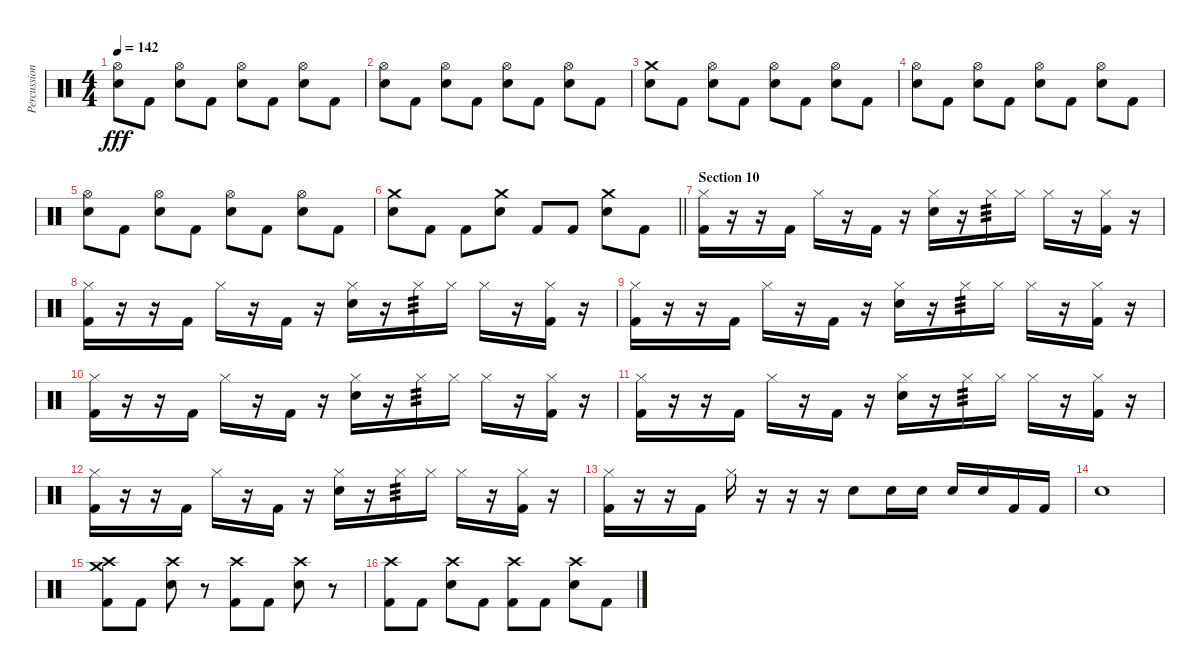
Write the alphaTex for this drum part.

\track ("Percussion" "Percussion") {instrument percussion}
\staff {score}
\articulation defaults
\ts (4 4)
\tempo 142
\clef neutral
\ks c
("Hi-Hat (open)" "Electric Snare (hit)").8{dy fff} "Kick (hit) 2".8 ("Hi-Hat (open)" "Electric Snare (hit)").8 "Kick (hit) 2".8 ("Hi-Hat (open)" "Electric Snare (hit)").8 "Kick (hit) 2".8 ("Hi-Hat (open)" "Electric Snare (hit)").8 "Kick (hit) 2".8 |
("Hi-Hat (open)" "Electric Snare (hit)").8 "Kick (hit) 2".8 ("Hi-Hat (open)" "Electric Snare (hit)").8 "Kick (hit) 2".8 ("Hi-Hat (open)" "Electric Snare (hit)").8 "Kick (hit) 2".8 ("Hi-Hat (open)" "Electric Snare (hit)").8 "Kick (hit) 2".8 |
("Crash medium (hit)" "Electric Snare (hit)").8 "Kick (hit) 2".8 ("Hi-Hat (open)" "Electric Snare (hit)").8 "Kick (hit) 2".8 ("Hi-Hat (open)" "Electric Snare (hit)").8 "Kick (hit) 2".8 ("Hi-Hat (open)" "Electric Snare (hit)").8 "Kick (hit) 2".8 |
("Hi-Hat (open)" "Electric Snare (hit)").8 "Kick (hit) 2".8 ("Hi-Hat (open)" "Electric Snare (hit)").8 "Kick (hit) 2".8 ("Hi-Hat (open)" "Electric Snare (hit)").8 "Kick (hit) 2".8 ("Hi-Hat (open)" "Electric Snare (hit)").8 "Kick (hit) 2".8 |
("Hi-Hat (open)" "Electric Snare (hit)").8 "Kick (hit) 2".8 ("Hi-Hat (open)" "Electric Snare (hit)").8 "Kick (hit) 2".8 ("Hi-Hat (open)" "Electric Snare (hit)").8 "Kick (hit) 2".8 ("Hi-Hat (open)" "Electric Snare (hit)").8 "Kick (hit) 2".8 |
\barLineRight lightlight
("Crash medium (hit)" "Electric Snare (hit)").8 "Kick (hit) 2".8 "Kick (hit) 2".8 ("Crash medium (hit)" "Electric Snare (hit)").8 "Kick (hit) 2".8 "Kick (hit) 2".8 ("Crash medium (hit)" "Electric Snare (hit)").8 "Kick (hit) 2".8 |
\section ("" "Section 10")
("Hi-Hat (closed)" "Kick (hit) 2").16 r.16 r.16 "Kick (hit) 2".16 "Hi-Hat (closed)".16 r.16 "Kick (hit) 2".16 r.16 ("Hi-Hat (closed)" "Electric Snare (hit)").16 r.16 "Hi-Hat (closed)".16{tp 3} "Hi-Hat (closed)".16 "Hi-Hat (closed)".16 r.16 ("Hi-Hat (closed)" "Kick (hit) 2").16 r.16 |
("Hi-Hat (closed)" "Kick (hit) 2").16 r.16 r.16 "Kick (hit) 2".16 "Hi-Hat (closed)".16 r.16 "Kick (hit) 2".16 r.16 ("Hi-Hat (closed)" "Electric Snare (hit)").16 r.16 "Hi-Hat (closed)".16{tp 3} "Hi-Hat (closed)".16 "Hi-Hat (closed)".16 r.16 ("Hi-Hat (closed)" "Kick (hit) 2").16 r.16 |
("Hi-Hat (closed)" "Kick (hit) 2").16 r.16 r.16 "Kick (hit) 2".16 "Hi-Hat (closed)".16 r.16 "Kick (hit) 2".16 r.16 ("Hi-Hat (closed)" "Electric Snare (hit)").16 r.16 "Hi-Hat (closed)".16{tp 3} "Hi-Hat (closed)".16 "Hi-Hat (closed)".16 r.16 ("Hi-Hat (closed)" "Kick (hit) 2").16 r.16 |
("Hi-Hat (closed)" "Kick (hit) 2").16 r.16 r.16 "Kick (hit) 2".16 "Hi-Hat (closed)".16 r.16 "Kick (hit) 2".16 r.16 ("Hi-Hat (closed)" "Electric Snare (hit)").16 r.16 "Hi-Hat (closed)".16{tp 3} "Hi-Hat (closed)".16 "Hi-Hat (closed)".16 r.16 ("Hi-Hat (closed)" "Kick (hit) 2").16 r.16 |
("Hi-Hat (closed)" "Kick (hit) 2").16 r.16 r.16 "Kick (hit) 2".16 "Hi-Hat (closed)".16 r.16 "Kick (hit) 2".16 r.16 ("Hi-Hat (closed)" "Electric Snare (hit)").16 r.16 "Hi-Hat (closed)".16{tp 3} "Hi-Hat (closed)".16 "Hi-Hat (closed)".16 r.16 ("Hi-Hat (closed)" "Kick (hit) 2").16 r.16 |
("Hi-Hat (closed)" "Kick (hit) 2").16 r.16 r.16 "Kick (hit) 2".16 "Hi-Hat (closed)".16 r.16 "Kick (hit) 2".16 r.16 ("Hi-Hat (closed)" "Electric Snare (hit)").16 r.16 "Hi-Hat (closed)".16{tp 3} "Hi-Hat (closed)".16 "Hi-Hat (closed)".16 r.16 ("Hi-Hat (closed)" "Kick (hit) 2").16 r.16 |
("Hi-Hat (closed)" "Kick (hit) 2").16 r.16 r.16 "Kick (hit) 2".16 "Hi-Hat (closed)".16 r.16 r.16 r.16 "Electric Snare (hit)".8 "Electric Snare (hit)".16 "Electric Snare (hit)".16 "Electric Snare (hit)".16 "Electric Snare (hit)".16 "Kick (hit) 2".16 "Kick (hit) 2".16 |
"Electric Snare (hit)".1 |
("Crash medium (hit)" "Crash high (hit)" "Kick (hit) 2").8 "Kick (hit) 2".8 ("Crash high (hit)" "Electric Snare (hit)").8 r.8 ("Crash high (hit)" "Kick (hit) 2").8 "Kick (hit) 2".8 ("Crash high (hit)" "Electric Snare (hit)").8 r.8 |
("Crash high (hit)" "Kick (hit) 2").8 "Kick (hit) 2".8 ("Crash high (hit)" "Electric Snare (hit)").8 "Kick (hit) 2".8 ("Crash high (hit)" "Kick (hit) 2").8 "Kick (hit) 2".8 ("Crash high (hit)" "Electric Snare (hit)").8 "Kick (hit) 2".8
